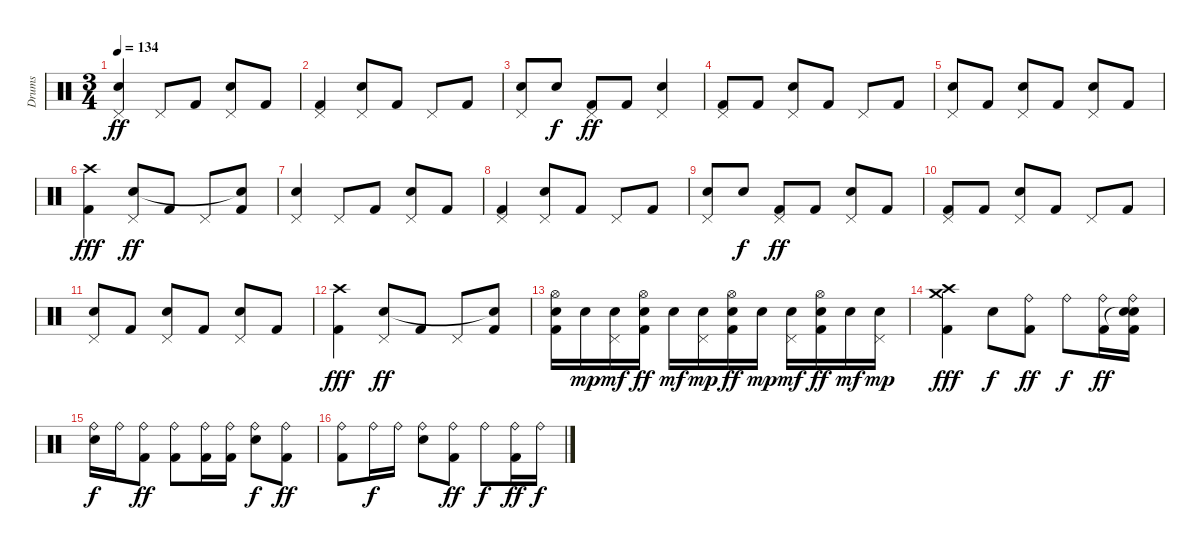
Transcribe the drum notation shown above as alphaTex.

\track ("Drums" "Drums") {instrument percussion}
\staff {score}
\articulation defaults
\ts (3 4)
\tempo 134
\clef neutral
\ks c
("Pedal Hi-Hat (hit)" "Snare (hit) 2").4{dy ff} "Pedal Hi-Hat (hit)".8 "Kick (hit) 2".8 ("Pedal Hi-Hat (hit)" "Snare (hit) 2").8 "Kick (hit) 2".8 |
("Pedal Hi-Hat (hit)" "Kick (hit) 2").4 ("Pedal Hi-Hat (hit)" "Snare (hit) 2").8 "Kick (hit) 2".8 "Pedal Hi-Hat (hit)".8 "Kick (hit) 2".8 |
("Pedal Hi-Hat (hit)" "Snare (hit) 2").8 "Snare (hit) 2".8{dy f} ("Pedal Hi-Hat (hit)" "Kick (hit) 2").8{dy ff} "Kick (hit) 2".8 ("Pedal Hi-Hat (hit)" "Snare (hit) 2").4 |
("Pedal Hi-Hat (hit)" "Kick (hit) 2").8 "Kick (hit) 2".8 ("Pedal Hi-Hat (hit)" "Snare (hit) 2").8 "Kick (hit) 2".8 "Pedal Hi-Hat (hit)".8 "Kick (hit) 2".8 |
("Pedal Hi-Hat (hit)" "Snare (hit) 2").8 "Kick (hit) 2".8 ("Pedal Hi-Hat (hit)" "Snare (hit) 2").8 "Kick (hit) 2".8 ("Pedal Hi-Hat (hit)" "Snare (hit) 2").8 "Kick (hit) 2".8 |
("Kick (hit) 2" "Crash high (hit)").4{dy fff} ("Pedal Hi-Hat (hit)" "Snare (hit) 2").8{dy ff} "Kick (hit) 2".8 "Pedal Hi-Hat (hit)".8 ("Kick (hit) 2" "Snare (hit)"{t}).8 |
("Pedal Hi-Hat (hit)" "Snare (hit) 2").4 "Pedal Hi-Hat (hit)".8 "Kick (hit) 2".8 ("Pedal Hi-Hat (hit)" "Snare (hit) 2").8 "Kick (hit) 2".8 |
("Pedal Hi-Hat (hit)" "Kick (hit) 2").4 ("Pedal Hi-Hat (hit)" "Snare (hit) 2").8 "Kick (hit) 2".8 "Pedal Hi-Hat (hit)".8 "Kick (hit) 2".8 |
("Pedal Hi-Hat (hit)" "Snare (hit) 2").8 "Snare (hit) 2".8{dy f} ("Pedal Hi-Hat (hit)" "Kick (hit) 2").8{dy ff} "Kick (hit) 2".8 ("Pedal Hi-Hat (hit)" "Snare (hit) 2").8 "Kick (hit) 2".8 |
("Pedal Hi-Hat (hit)" "Kick (hit) 2").8 "Kick (hit) 2".8 ("Pedal Hi-Hat (hit)" "Snare (hit) 2").8 "Kick (hit) 2".8 "Pedal Hi-Hat (hit)".8 "Kick (hit) 2".8 |
("Pedal Hi-Hat (hit)" "Snare (hit) 2").8 "Kick (hit) 2".8 ("Pedal Hi-Hat (hit)" "Snare (hit) 2").8 "Kick (hit) 2".8 ("Pedal Hi-Hat (hit)" "Snare (hit) 2").8 "Kick (hit) 2".8 |
("Kick (hit) 2" "Crash high (hit)").4{dy fff} ("Pedal Hi-Hat (hit)" "Snare (hit) 2").8{dy ff} "Kick (hit) 2".8 "Pedal Hi-Hat (hit)".8 ("Kick (hit) 2" "Snare (hit)"{t}).8 |
("Hi-Hat (open)" "Snare (hit) 2" "Kick (hit) 2").16 "Snare (hit) 2".16{dy mp} ("Pedal Hi-Hat (hit)" "Snare (hit) 2").16{dy mf} ("Hi-Hat (open)" "Snare (hit) 2" "Kick (hit) 2").16{dy ff} "Snare (hit) 2".16{dy mf} ("Pedal Hi-Hat (hit)" "Snare (hit) 2").16{dy mp} ("Hi-Hat (open)" "Snare (hit) 2" "Kick (hit) 2").16{dy ff} "Snare (hit) 2".16{dy mp} ("Pedal Hi-Hat (hit)" "Snare (hit) 2").16{dy mf} ("Hi-Hat (open)" "Snare (hit) 2" "Kick (hit) 2").16{dy ff} "Snare (hit) 2".16{dy mf} ("Pedal Hi-Hat (hit)" "Snare (hit) 2").16{dy mp} |
("Crash medium (hit)" "Kick (hit) 2" "Crash high (hit)").4{dy fff} "Snare (hit) 2".8{dy f} ("Ride (bell)" "Kick (hit) 2").8{dy ff} "Ride (bell)".8{dy f} ("Ride (bell)" "Kick (hit) 2").16{dy ff} ("Ride (bell)" "Snare (hit)"{t} "Kick (hit) 2" "Snare (hit)").16 |
("Ride (bell)" "Snare (hit) 2").16{dy f} "Ride (bell)".16 ("Ride (bell)" "Kick (hit) 2").8{dy ff} ("Ride (bell)" "Kick (hit) 2").8 ("Ride (bell)" "Kick (hit) 2").16 ("Ride (bell)" "Kick (hit) 2").16 ("Ride (bell)" "Snare (hit) 2").8{dy f} ("Ride (bell)" "Kick (hit) 2").8{dy ff} |
("Ride (bell)" "Kick (hit) 2").8 "Ride (bell)".16{dy f} "Ride (bell)".16 ("Ride (bell)" "Snare (hit) 2").8 ("Ride (bell)" "Kick (hit) 2").8{dy ff} "Ride (bell)".8{dy f} ("Ride (bell)" "Kick (hit) 2").16{dy ff} "Ride (bell)".16{dy f}
